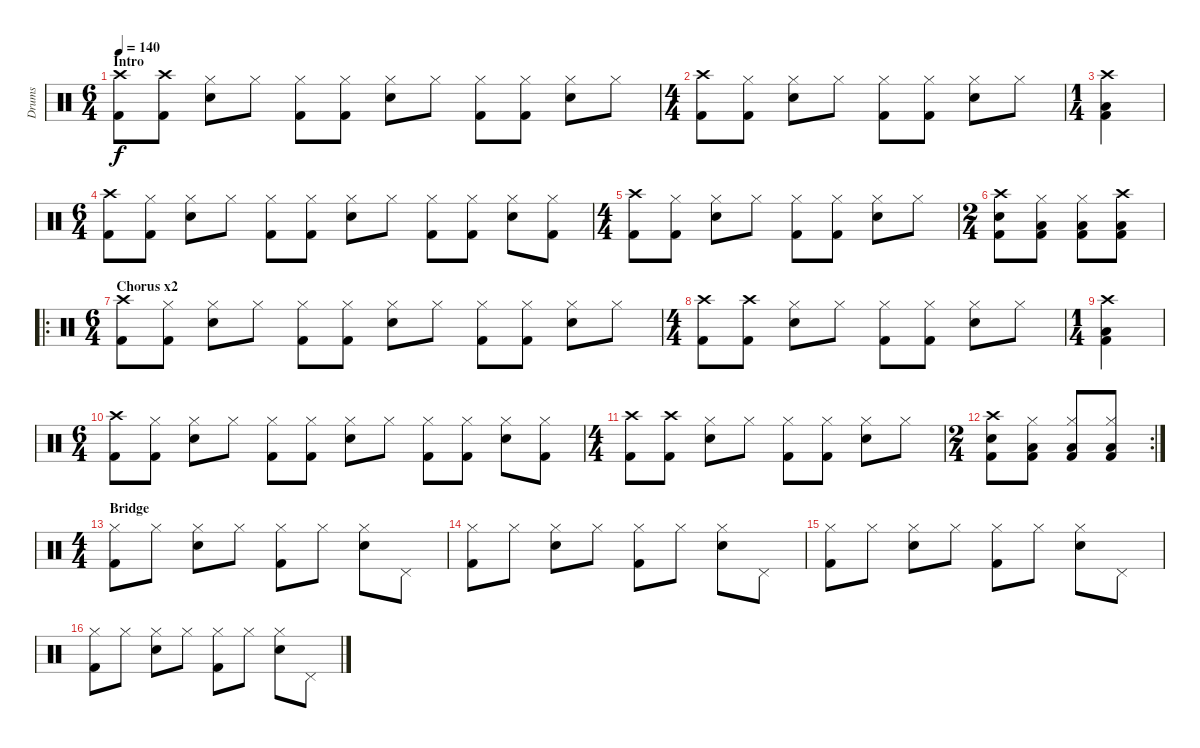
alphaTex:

\track ("Drums" "Drums") {instrument percussion}
\staff {score}
\articulation defaults
\ts (6 4)
\section ("" "Intro")
\tempo 140
\clef neutral
\ks c
("Crash high (hit)" "Kick (hit) 2").8{dy f} ("Crash high (hit)" "Kick (hit) 2").8 ("Hi-Hat (closed)" "Snare (hit) 2").8 "Hi-Hat (closed)".8 ("Hi-Hat (closed)" "Kick (hit) 2").8 ("Hi-Hat (closed)" "Kick (hit) 2").8 ("Hi-Hat (closed)" "Snare (hit) 2").8 "Hi-Hat (closed)".8 ("Hi-Hat (closed)" "Kick (hit) 2").8 ("Hi-Hat (closed)" "Kick (hit) 2").8 ("Hi-Hat (closed)" "Snare (hit) 2").8 "Hi-Hat (closed)".8 |
\ts (4 4)
("Crash high (hit)" "Kick (hit) 2").8 ("Hi-Hat (closed)" "Kick (hit) 2").8 ("Hi-Hat (closed)" "Snare (hit) 2").8 "Hi-Hat (closed)".8 ("Hi-Hat (closed)" "Kick (hit) 2").8 ("Hi-Hat (closed)" "Kick (hit) 2").8 ("Hi-Hat (closed)" "Snare (hit) 2").8 "Hi-Hat (closed)".8 |
\ts (1 4)
("Crash high (hit)" "Low Floor Tom (hit)" "Kick (hit) 2").4 |
\ts (6 4)
("Crash high (hit)" "Kick (hit) 2").8 ("Hi-Hat (closed)" "Kick (hit) 2").8 ("Hi-Hat (closed)" "Snare (hit) 2").8 "Hi-Hat (closed)".8 ("Hi-Hat (closed)" "Kick (hit) 2").8 ("Hi-Hat (closed)" "Kick (hit) 2").8 ("Hi-Hat (closed)" "Snare (hit) 2").8 "Hi-Hat (closed)".8 ("Hi-Hat (closed)" "Kick (hit) 2").8 ("Hi-Hat (closed)" "Kick (hit) 2").8 ("Hi-Hat (closed)" "Snare (hit) 2").8 ("Hi-Hat (closed)" "Kick (hit) 2").8 |
\ts (4 4)
("Crash high (hit)" "Kick (hit) 2").8 ("Hi-Hat (closed)" "Kick (hit) 2").8 ("Hi-Hat (closed)" "Snare (hit) 2").8 "Hi-Hat (closed)".8 ("Hi-Hat (closed)" "Kick (hit) 2").8 ("Hi-Hat (closed)" "Kick (hit) 2").8 ("Hi-Hat (closed)" "Snare (hit) 2").8 "Hi-Hat (closed)".8 |
\ts (2 4)
("Crash high (hit)" "Snare (hit) 2" "Kick (hit) 2").8 ("Hi-Hat (closed)" "Low Floor Tom (hit)" "Kick (hit) 2").8 ("Hi-Hat (closed)" "Low Floor Tom (hit)" "Kick (hit) 2").8 ("Crash high (hit)" "Low Floor Tom (hit)" "Kick (hit) 2").8 |
\ro
\ts (6 4)
\section ("" "Chorus x2")
("Crash high (hit)" "Kick (hit) 2").8 ("Hi-Hat (closed)" "Kick (hit) 2").8 ("Hi-Hat (closed)" "Snare (hit) 2").8 "Hi-Hat (closed)".8 ("Hi-Hat (closed)" "Kick (hit) 2").8 ("Hi-Hat (closed)" "Kick (hit) 2").8 ("Hi-Hat (closed)" "Snare (hit) 2").8 "Hi-Hat (closed)".8 ("Hi-Hat (closed)" "Kick (hit) 2").8 ("Hi-Hat (closed)" "Kick (hit) 2").8 ("Hi-Hat (closed)" "Snare (hit) 2").8 "Hi-Hat (closed)".8 |
\ts (4 4)
("Crash high (hit)" "Kick (hit) 2").8 ("Crash high (hit)" "Kick (hit) 2").8 ("Hi-Hat (closed)" "Snare (hit) 2").8 "Hi-Hat (closed)".8 ("Hi-Hat (closed)" "Kick (hit) 2").8 ("Hi-Hat (closed)" "Kick (hit) 2").8 ("Hi-Hat (closed)" "Snare (hit) 2").8 "Hi-Hat (closed)".8 |
\ts (1 4)
("Crash high (hit)" "Low Floor Tom (hit)" "Kick (hit) 2").4 |
\ts (6 4)
("Crash high (hit)" "Kick (hit) 2").8 ("Hi-Hat (closed)" "Kick (hit) 2").8 ("Hi-Hat (closed)" "Snare (hit) 2").8 "Hi-Hat (closed)".8 ("Hi-Hat (closed)" "Kick (hit) 2").8 ("Hi-Hat (closed)" "Kick (hit) 2").8 ("Hi-Hat (closed)" "Snare (hit) 2").8 "Hi-Hat (closed)".8 ("Hi-Hat (closed)" "Kick (hit) 2").8 ("Hi-Hat (closed)" "Kick (hit) 2").8 ("Hi-Hat (closed)" "Snare (hit) 2").8 ("Hi-Hat (closed)" "Kick (hit) 2").8 |
\ts (4 4)
("Crash high (hit)" "Kick (hit) 2").8 ("Crash high (hit)" "Kick (hit) 2").8 ("Hi-Hat (closed)" "Snare (hit) 2").8 "Hi-Hat (closed)".8 ("Hi-Hat (closed)" "Kick (hit) 2").8 ("Hi-Hat (closed)" "Kick (hit) 2").8 ("Hi-Hat (closed)" "Snare (hit) 2").8 "Hi-Hat (closed)".8 |
\rc 2
\ts (2 4)
("Crash high (hit)" "Snare (hit) 2" "Kick (hit) 2").8 ("Hi-Hat (closed)" "Low Floor Tom (hit)" "Kick (hit) 2").8 ("Hi-Hat (closed)" "Low Floor Tom (hit)" "Kick (hit) 2").8 ("Hi-Hat (closed)" "Low Floor Tom (hit)" "Kick (hit) 2").8 |
\ts (4 4)
\section ("" "Bridge")
("Hi-Hat (closed)" "Kick (hit) 2").8 "Hi-Hat (closed)".8 ("Hi-Hat (closed)" "Snare (hit) 2").8 "Hi-Hat (closed)".8 ("Hi-Hat (closed)" "Kick (hit) 2").8 "Hi-Hat (closed)".8 ("Hi-Hat (closed)" "Snare (hit) 2").8 "Pedal Hi-Hat (hit)".8 |
("Hi-Hat (closed)" "Kick (hit) 2").8 "Hi-Hat (closed)".8 ("Hi-Hat (closed)" "Snare (hit) 2").8 "Hi-Hat (closed)".8 ("Hi-Hat (closed)" "Kick (hit) 2").8 "Hi-Hat (closed)".8 ("Hi-Hat (closed)" "Snare (hit) 2").8 "Pedal Hi-Hat (hit)".8 |
("Hi-Hat (closed)" "Kick (hit) 2").8 "Hi-Hat (closed)".8 ("Hi-Hat (closed)" "Snare (hit) 2").8 "Hi-Hat (closed)".8 ("Hi-Hat (closed)" "Kick (hit) 2").8 "Hi-Hat (closed)".8 ("Hi-Hat (closed)" "Snare (hit) 2").8 "Pedal Hi-Hat (hit)".8 |
("Hi-Hat (closed)" "Kick (hit) 2").8 "Hi-Hat (closed)".8 ("Hi-Hat (closed)" "Snare (hit) 2").8 "Hi-Hat (closed)".8 ("Hi-Hat (closed)" "Kick (hit) 2").8 "Hi-Hat (closed)".8 ("Hi-Hat (closed)" "Snare (hit) 2").8 "Pedal Hi-Hat (hit)".8
